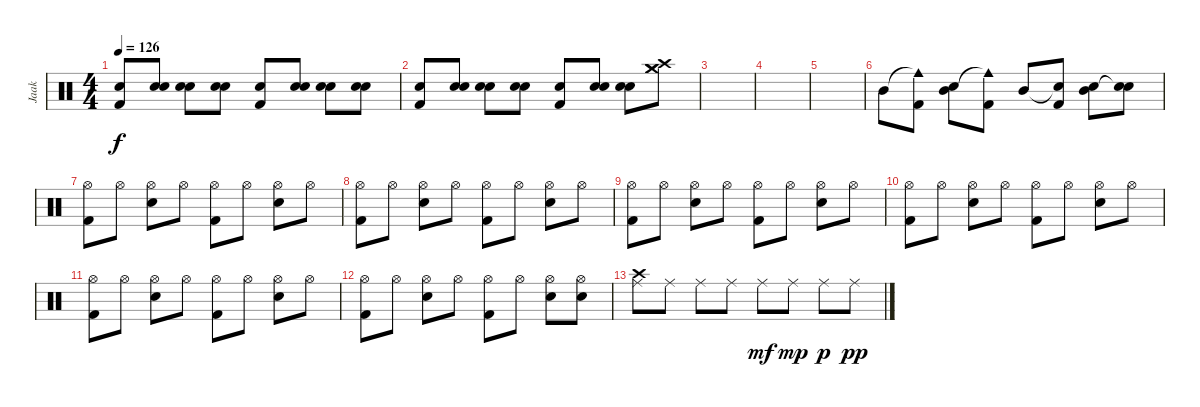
\track ("Jaak" "Jaak") {instrument percussion}
\staff {score}
\articulation defaults
\ts (4 4)
\tempo 126
\clef neutral
\ks c
("Snare (hit) 2" "Kick (hit) 2").8{dy f} ("Snare (hit) 2" "Snare (hit) 2").8 ("Snare (hit) 2" "Snare (hit) 2").8 ("Snare (hit) 2" "Snare (hit) 2").8 ("Snare (hit) 2" "Kick (hit) 2").8 ("Snare (hit) 2" "Snare (hit) 2").8 ("Snare (hit) 2" "Snare (hit) 2").8 ("Snare (hit) 2" "Snare (hit) 2").8 |
("Snare (hit) 2" "Kick (hit) 2").8 ("Snare (hit) 2" "Snare (hit) 2").8 ("Snare (hit) 2" "Snare (hit) 2").8 ("Snare (hit) 2" "Snare (hit) 2").8 ("Snare (hit) 2" "Kick (hit) 2").8 ("Snare (hit) 2" "Snare (hit) 2").8 ("Snare (hit) 2" "Snare (hit) 2").8 ("Crash high (hit)" "Crash medium (hit)" "Crash medium (hit)").8 |
|
|
|
"Mid Tom (hit)".8 ("Cowbell medium (hit)"{t} "Kick (hit) 2").8 ("Mid Tom (hit)" "Snare (hit) 2").8 ("Cowbell medium (hit)"{t} "Kick (hit) 2").8 "Mid Tom (hit)".8 ("Snare (hit)"{t} "Kick (hit) 2").8 ("Mid Tom (hit)" "Snare (hit) 2").8 ("Snare (hit)"{t} "Snare (hit) 2").8 |
("Hi-Hat (open)" "Kick (hit) 2").8 "Hi-Hat (open)".8 ("Hi-Hat (open)" "Snare (hit) 2").8 "Hi-Hat (open)".8 ("Hi-Hat (open)" "Kick (hit) 2").8 "Hi-Hat (open)".8 ("Hi-Hat (open)" "Snare (hit) 2").8 "Hi-Hat (open)".8 |
("Hi-Hat (open)" "Kick (hit) 2").8 "Hi-Hat (open)".8 ("Hi-Hat (open)" "Snare (hit) 2").8 "Hi-Hat (open)".8 ("Hi-Hat (open)" "Kick (hit) 2").8 "Hi-Hat (open)".8 ("Hi-Hat (open)" "Snare (hit) 2").8 "Hi-Hat (open)".8 |
("Hi-Hat (open)" "Kick (hit) 2").8 "Hi-Hat (open)".8 ("Hi-Hat (open)" "Snare (hit) 2").8 "Hi-Hat (open)".8 ("Hi-Hat (open)" "Kick (hit) 2").8 "Hi-Hat (open)".8 ("Hi-Hat (open)" "Snare (hit) 2").8 "Hi-Hat (open)".8 |
("Hi-Hat (open)" "Kick (hit) 2").8 "Hi-Hat (open)".8 ("Hi-Hat (open)" "Snare (hit) 2").8 "Hi-Hat (open)".8 ("Hi-Hat (open)" "Kick (hit) 2").8 "Hi-Hat (open)".8 ("Hi-Hat (open)" "Snare (hit) 2").8 "Hi-Hat (open)".8 |
("Hi-Hat (open)" "Kick (hit) 2").8 "Hi-Hat (open)".8 ("Hi-Hat (open)" "Snare (hit) 2").8 "Hi-Hat (open)".8 ("Hi-Hat (open)" "Kick (hit) 2").8 "Hi-Hat (open)".8 ("Hi-Hat (open)" "Snare (hit) 2").8 "Hi-Hat (open)".8 |
("Hi-Hat (open)" "Kick (hit) 2").8 "Hi-Hat (open)".8 ("Hi-Hat (open)" "Snare (hit) 2").8 "Hi-Hat (open)".8 ("Hi-Hat (open)" "Kick (hit) 2").8 "Hi-Hat (open)".8 ("Hi-Hat (open)" "Snare (hit) 2").8 ("Hi-Hat (open)" "Snare (hit) 2").8 |
("Crash high (hit)" "Ride (middle)").8 "Ride (middle)".8 "Ride (middle)".8 "Ride (middle)".8 "Ride (middle)".8{dy mf} "Ride (middle)".8{dy mp} "Ride (middle)".8{dy p} "Ride (middle)".8{dy pp}
